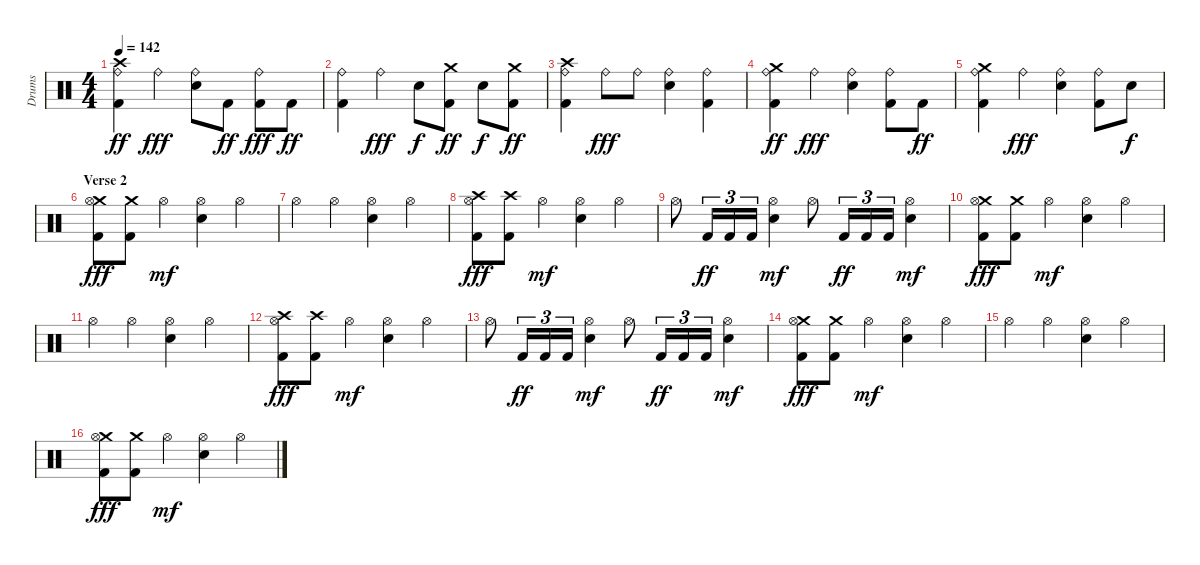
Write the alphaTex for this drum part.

\track ("Drums" "Drums") {instrument percussion}
\staff {score}
\articulation defaults
\ts (4 4)
\tempo 142
\clef neutral
\ks c
("Crash high (hit)" "Ride (bell)" "Kick (hit) 2").4{dy ff} "Ride (bell)".4{dy fff} ("Ride (bell)" "Snare (hit) 2").8 "Kick (hit) 2".8{dy ff} ("Ride (bell)" "Kick (hit) 2").8{dy fff} "Kick (hit) 2".8{dy ff} |
("Ride (bell)" "Kick (hit) 2").4 "Ride (bell)".4{dy fff} "Snare (hit) 2".8{dy f} ("Crash medium (hit)" "Kick (hit) 2").8{dy ff} "Snare (hit) 2".8{dy f} ("Crash medium (hit)" "Kick (hit) 2").8{dy ff} |
("Crash high (hit)" "Ride (bell)" "Kick (hit) 2").4 "Ride (bell)".8{dy fff} "Ride (bell)".8 ("Ride (bell)" "Snare (hit) 2").4 ("Ride (bell)" "Kick (hit) 2").4 |
("Crash medium (hit)" "Ride (bell)" "Kick (hit) 2").4{dy ff} "Ride (bell)".4{dy fff} ("Ride (bell)" "Snare (hit) 2").4 ("Ride (bell)" "Kick (hit) 2").8 "Kick (hit) 2".8{dy ff} |
("Crash medium (hit)" "Ride (bell)" "Kick (hit) 2").4 "Ride (bell)".4{dy fff} ("Ride (bell)" "Snare (hit) 2").4 ("Ride (bell)" "Kick (hit) 2").8 "Snare (hit) 2".8{dy f} |
\section ("" "Verse 2")
("Crash medium (hit)" "Hi-Hat (open)" "Kick (hit) 2").8{dy fff} ("Crash medium (hit)" "Kick (hit) 2").8 "Hi-Hat (open)".4{dy mf} ("Hi-Hat (open)" "Snare (hit) 2").4 "Hi-Hat (open)".4 |
"Hi-Hat (open)".4 "Hi-Hat (open)".4 ("Hi-Hat (open)" "Snare (hit) 2").4 "Hi-Hat (open)".4 |
("Crash high (hit)" "Hi-Hat (open)" "Kick (hit) 2").8{dy fff} ("Crash high (hit)" "Kick (hit) 2").8 "Hi-Hat (open)".4{dy mf} ("Hi-Hat (open)" "Snare (hit) 2").4 "Hi-Hat (open)".4 |
"Hi-Hat (open)".8 "Kick (hit) 2".16{tu (3 2) dy ff} "Kick (hit) 2".16{tu (3 2)} "Kick (hit) 2".16{tu (3 2)} ("Hi-Hat (open)" "Snare (hit) 2").4{dy mf} "Hi-Hat (open)".8 "Kick (hit) 2".16{tu (3 2) dy ff} "Kick (hit) 2".16{tu (3 2)} "Kick (hit) 2".16{tu (3 2)} ("Hi-Hat (open)" "Snare (hit) 2").4{dy mf} |
("Crash medium (hit)" "Hi-Hat (open)" "Kick (hit) 2").8{dy fff} ("Crash medium (hit)" "Kick (hit) 2").8 "Hi-Hat (open)".4{dy mf} ("Hi-Hat (open)" "Snare (hit) 2").4 "Hi-Hat (open)".4 |
"Hi-Hat (open)".4 "Hi-Hat (open)".4 ("Hi-Hat (open)" "Snare (hit) 2").4 "Hi-Hat (open)".4 |
("Crash high (hit)" "Hi-Hat (open)" "Kick (hit) 2").8{dy fff} ("Crash high (hit)" "Kick (hit) 2").8 "Hi-Hat (open)".4{dy mf} ("Hi-Hat (open)" "Snare (hit) 2").4 "Hi-Hat (open)".4 |
"Hi-Hat (open)".8 "Kick (hit) 2".16{tu (3 2) dy ff} "Kick (hit) 2".16{tu (3 2)} "Kick (hit) 2".16{tu (3 2)} ("Hi-Hat (open)" "Snare (hit) 2").4{dy mf} "Hi-Hat (open)".8 "Kick (hit) 2".16{tu (3 2) dy ff} "Kick (hit) 2".16{tu (3 2)} "Kick (hit) 2".16{tu (3 2)} ("Hi-Hat (open)" "Snare (hit) 2").4{dy mf} |
("Crash medium (hit)" "Hi-Hat (open)" "Kick (hit) 2").8{dy fff} ("Crash medium (hit)" "Kick (hit) 2").8 "Hi-Hat (open)".4{dy mf} ("Hi-Hat (open)" "Snare (hit) 2").4 "Hi-Hat (open)".4 |
"Hi-Hat (open)".4 "Hi-Hat (open)".4 ("Hi-Hat (open)" "Snare (hit) 2").4 "Hi-Hat (open)".4 |
("Crash medium (hit)" "Hi-Hat (open)" "Kick (hit) 2").8{dy fff} ("Crash medium (hit)" "Kick (hit) 2").8 "Hi-Hat (open)".4{dy mf} ("Hi-Hat (open)" "Snare (hit) 2").4 "Hi-Hat (open)".4
